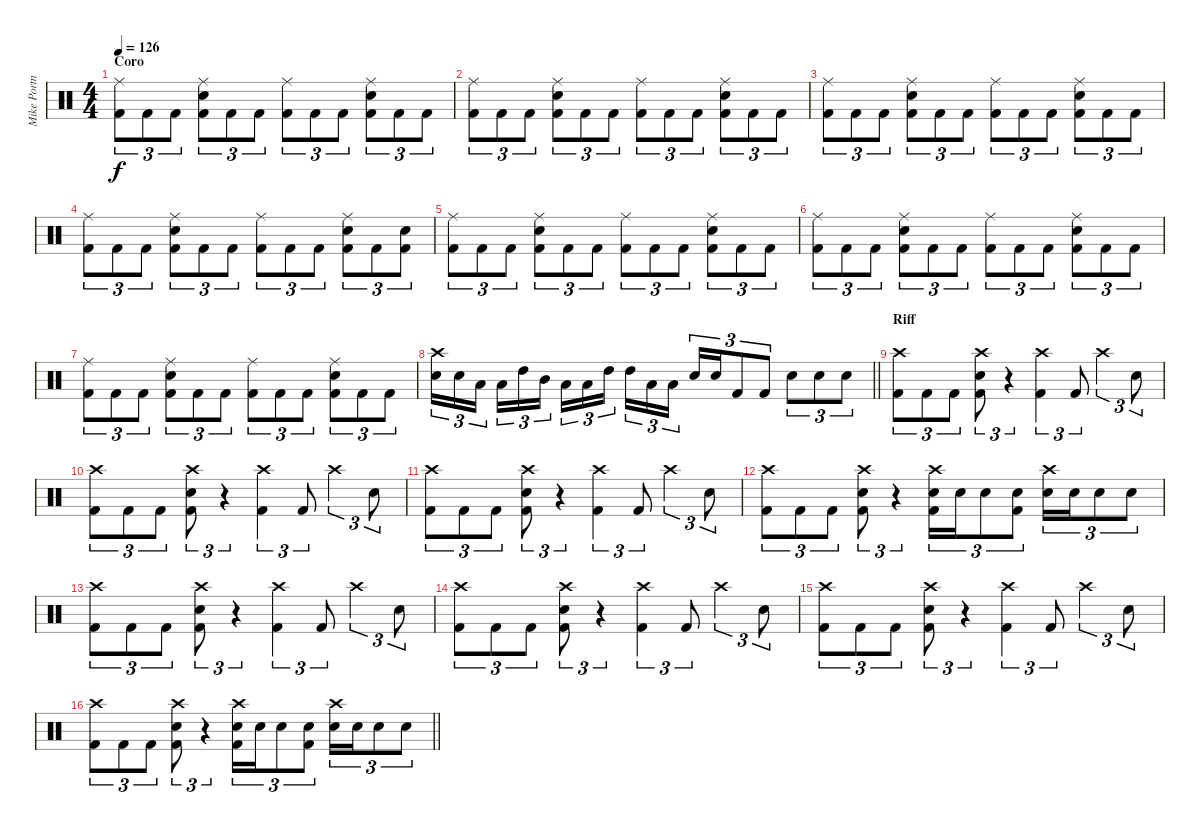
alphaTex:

\track ("Mike Portnoy" "Mike Portn") {instrument percussion}
\staff {score}
\articulation defaults
\ts (4 4)
\section ("" "Coro")
\tempo 126
\clef neutral
\ks c
("Ride (middle)" "Kick (hit) 2").8{tu (3 2) dy f} "Kick (hit) 2".8{tu (3 2)} "Kick (hit) 2".8{tu (3 2)} ("Ride (middle)" "Electric Snare (hit)" "Kick (hit) 2").8{tu (3 2)} "Kick (hit) 2".8{tu (3 2)} "Kick (hit) 2".8{tu (3 2)} ("Ride (middle)" "Kick (hit) 2").8{tu (3 2)} "Kick (hit) 2".8{tu (3 2)} "Kick (hit) 2".8{tu (3 2)} ("Ride (middle)" "Electric Snare (hit)" "Kick (hit) 2").8{tu (3 2)} "Kick (hit) 2".8{tu (3 2)} "Kick (hit) 2".8{tu (3 2)} |
("Ride (middle)" "Kick (hit) 2").8{tu (3 2)} "Kick (hit) 2".8{tu (3 2)} "Kick (hit) 2".8{tu (3 2)} ("Ride (middle)" "Electric Snare (hit)" "Kick (hit) 2").8{tu (3 2)} "Kick (hit) 2".8{tu (3 2)} "Kick (hit) 2".8{tu (3 2)} ("Ride (middle)" "Kick (hit) 2").8{tu (3 2)} "Kick (hit) 2".8{tu (3 2)} "Kick (hit) 2".8{tu (3 2)} ("Ride (middle)" "Electric Snare (hit)" "Kick (hit) 2").8{tu (3 2)} "Kick (hit) 2".8{tu (3 2)} "Kick (hit) 2".8{tu (3 2)} |
("Ride (middle)" "Kick (hit) 2").8{tu (3 2)} "Kick (hit) 2".8{tu (3 2)} "Kick (hit) 2".8{tu (3 2)} ("Ride (middle)" "Electric Snare (hit)" "Kick (hit) 2").8{tu (3 2)} "Kick (hit) 2".8{tu (3 2)} "Kick (hit) 2".8{tu (3 2)} ("Ride (middle)" "Kick (hit) 2").8{tu (3 2)} "Kick (hit) 2".8{tu (3 2)} "Kick (hit) 2".8{tu (3 2)} ("Ride (middle)" "Electric Snare (hit)" "Kick (hit) 2").8{tu (3 2)} "Kick (hit) 2".8{tu (3 2)} "Kick (hit) 2".8{tu (3 2)} |
("Ride (middle)" "Kick (hit) 2").8{tu (3 2)} "Kick (hit) 2".8{tu (3 2)} "Kick (hit) 2".8{tu (3 2)} ("Ride (middle)" "Electric Snare (hit)" "Kick (hit) 2").8{tu (3 2)} "Kick (hit) 2".8{tu (3 2)} "Kick (hit) 2".8{tu (3 2)} ("Ride (middle)" "Kick (hit) 2").8{tu (3 2)} "Kick (hit) 2".8{tu (3 2)} "Kick (hit) 2".8{tu (3 2)} ("Ride (middle)" "Electric Snare (hit)" "Kick (hit) 2").8{tu (3 2)} "Kick (hit) 2".8{tu (3 2)} ("Electric Snare (hit)" "Kick (hit) 2").8{tu (3 2)} |
("Ride (middle)" "Kick (hit) 2").8{tu (3 2)} "Kick (hit) 2".8{tu (3 2)} "Kick (hit) 2".8{tu (3 2)} ("Ride (middle)" "Electric Snare (hit)" "Kick (hit) 2").8{tu (3 2)} "Kick (hit) 2".8{tu (3 2)} "Kick (hit) 2".8{tu (3 2)} ("Ride (middle)" "Kick (hit) 2").8{tu (3 2)} "Kick (hit) 2".8{tu (3 2)} "Kick (hit) 2".8{tu (3 2)} ("Ride (middle)" "Electric Snare (hit)" "Kick (hit) 2").8{tu (3 2)} "Kick (hit) 2".8{tu (3 2)} "Kick (hit) 2".8{tu (3 2)} |
("Ride (middle)" "Kick (hit) 2").8{tu (3 2)} "Kick (hit) 2".8{tu (3 2)} "Kick (hit) 2".8{tu (3 2)} ("Ride (middle)" "Electric Snare (hit)" "Kick (hit) 2").8{tu (3 2)} "Kick (hit) 2".8{tu (3 2)} "Kick (hit) 2".8{tu (3 2)} ("Ride (middle)" "Kick (hit) 2").8{tu (3 2)} "Kick (hit) 2".8{tu (3 2)} "Kick (hit) 2".8{tu (3 2)} ("Ride (middle)" "Electric Snare (hit)" "Kick (hit) 2").8{tu (3 2)} "Kick (hit) 2".8{tu (3 2)} "Kick (hit) 2".8{tu (3 2)} |
("Ride (middle)" "Kick (hit) 2").8{tu (3 2)} "Kick (hit) 2".8{tu (3 2)} "Kick (hit) 2".8{tu (3 2)} ("Ride (middle)" "Electric Snare (hit)" "Kick (hit) 2").8{tu (3 2)} "Kick (hit) 2".8{tu (3 2)} "Kick (hit) 2".8{tu (3 2)} ("Ride (middle)" "Kick (hit) 2").8{tu (3 2)} "Kick (hit) 2".8{tu (3 2)} "Kick (hit) 2".8{tu (3 2)} ("Ride (middle)" "Electric Snare (hit)" "Kick (hit) 2").8{tu (3 2)} "Kick (hit) 2".8{tu (3 2)} "Kick (hit) 2".8{tu (3 2)} |
\barLineRight lightlight
("Crash high (hit)" "Electric Snare (hit)").16{tu (3 2)} "Electric Snare (hit)".16{tu (3 2)} "Low Tom (hit)".16{tu (3 2) beam splitsecondary} "Low Tom (hit)".16{tu (3 2)} "High Tom (hit)".16{tu (3 2)} "Mid Tom (hit)".16{tu (3 2)} "Low Tom (hit)".16{tu (3 2)} "Low Tom (hit)".16{tu (3 2)} "High Tom (hit)".16{tu (3 2) beam splitsecondary} "High Tom (hit)".16{tu (3 2)} "Low Tom (hit)".16{tu (3 2)} "Low Tom (hit)".16{tu (3 2)} "Electric Snare (hit)".16{tu (3 2)} "Electric Snare (hit)".16{tu (3 2)} "Kick (hit) 2".8{tu (3 2)} "Kick (hit) 2".8{tu (3 2)} "Electric Snare (hit)".8{tu (3 2)} "Electric Snare (hit)".8{tu (3 2)} "Electric Snare (hit)".8{tu (3 2)} |
\section ("" "Riff")
("Crash high (hit)" "Kick (hit) 2").8{tu (3 2)} "Kick (hit) 2".8{tu (3 2)} "Kick (hit) 2".8{tu (3 2)} ("Crash high (hit)" "Electric Snare (hit)" "Kick (hit) 2").8{tu (3 2)} r.4{tu (3 2)} ("Crash high (hit)" "Kick (hit) 2").4{tu (3 2)} "Kick (hit) 2".8{tu (3 2)} "Crash high (hit)".4{tu (3 2)} "Electric Snare (hit)".8{tu (3 2)} |
("Crash high (hit)" "Kick (hit) 2").8{tu (3 2)} "Kick (hit) 2".8{tu (3 2)} "Kick (hit) 2".8{tu (3 2)} ("Crash high (hit)" "Electric Snare (hit)" "Kick (hit) 2").8{tu (3 2)} r.4{tu (3 2)} ("Crash high (hit)" "Kick (hit) 2").4{tu (3 2)} "Kick (hit) 2".8{tu (3 2)} "Crash high (hit)".4{tu (3 2)} "Electric Snare (hit)".8{tu (3 2)} |
("Crash high (hit)" "Kick (hit) 2").8{tu (3 2)} "Kick (hit) 2".8{tu (3 2)} "Kick (hit) 2".8{tu (3 2)} ("Crash high (hit)" "Electric Snare (hit)" "Kick (hit) 2").8{tu (3 2)} r.4{tu (3 2)} ("Crash high (hit)" "Kick (hit) 2").4{tu (3 2)} "Kick (hit) 2".8{tu (3 2)} "Crash high (hit)".4{tu (3 2)} "Electric Snare (hit)".8{tu (3 2)} |
("Crash high (hit)" "Kick (hit) 2").8{tu (3 2)} "Kick (hit) 2".8{tu (3 2)} "Kick (hit) 2".8{tu (3 2)} ("Crash high (hit)" "Electric Snare (hit)" "Kick (hit) 2").8{tu (3 2)} r.4{tu (3 2)} ("Crash high (hit)" "Electric Snare (hit)" "Kick (hit) 2").16{tu (3 2)} "Electric Snare (hit)".16{tu (3 2)} "Electric Snare (hit)".8{tu (3 2)} ("Electric Snare (hit)" "Kick (hit) 2").8{tu (3 2)} ("Crash high (hit)" "Electric Snare (hit)").16{tu (3 2)} "Electric Snare (hit)".16{tu (3 2)} "Electric Snare (hit)".8{tu (3 2)} "Electric Snare (hit)".8{tu (3 2)} |
("Crash high (hit)" "Kick (hit) 2").8{tu (3 2)} "Kick (hit) 2".8{tu (3 2)} "Kick (hit) 2".8{tu (3 2)} ("Crash high (hit)" "Electric Snare (hit)" "Kick (hit) 2").8{tu (3 2)} r.4{tu (3 2)} ("Crash high (hit)" "Kick (hit) 2").4{tu (3 2)} "Kick (hit) 2".8{tu (3 2)} "Crash high (hit)".4{tu (3 2)} "Electric Snare (hit)".8{tu (3 2)} |
("Crash high (hit)" "Kick (hit) 2").8{tu (3 2)} "Kick (hit) 2".8{tu (3 2)} "Kick (hit) 2".8{tu (3 2)} ("Crash high (hit)" "Electric Snare (hit)" "Kick (hit) 2").8{tu (3 2)} r.4{tu (3 2)} ("Crash high (hit)" "Kick (hit) 2").4{tu (3 2)} "Kick (hit) 2".8{tu (3 2)} "Crash high (hit)".4{tu (3 2)} "Electric Snare (hit)".8{tu (3 2)} |
("Crash high (hit)" "Kick (hit) 2").8{tu (3 2)} "Kick (hit) 2".8{tu (3 2)} "Kick (hit) 2".8{tu (3 2)} ("Crash high (hit)" "Electric Snare (hit)" "Kick (hit) 2").8{tu (3 2)} r.4{tu (3 2)} ("Crash high (hit)" "Kick (hit) 2").4{tu (3 2)} "Kick (hit) 2".8{tu (3 2)} "Crash high (hit)".4{tu (3 2)} "Electric Snare (hit)".8{tu (3 2)} |
\barLineRight lightlight
("Crash high (hit)" "Kick (hit) 2").8{tu (3 2)} "Kick (hit) 2".8{tu (3 2)} "Kick (hit) 2".8{tu (3 2)} ("Crash high (hit)" "Electric Snare (hit)" "Kick (hit) 2").8{tu (3 2)} r.4{tu (3 2)} ("Crash high (hit)" "Electric Snare (hit)" "Kick (hit) 2").16{tu (3 2)} "Electric Snare (hit)".16{tu (3 2)} "Electric Snare (hit)".8{tu (3 2)} ("Electric Snare (hit)" "Kick (hit) 2").8{tu (3 2)} ("Crash high (hit)" "Electric Snare (hit)").16{tu (3 2)} "Electric Snare (hit)".16{tu (3 2)} "Electric Snare (hit)".8{tu (3 2)} "Electric Snare (hit)".8{tu (3 2)}
